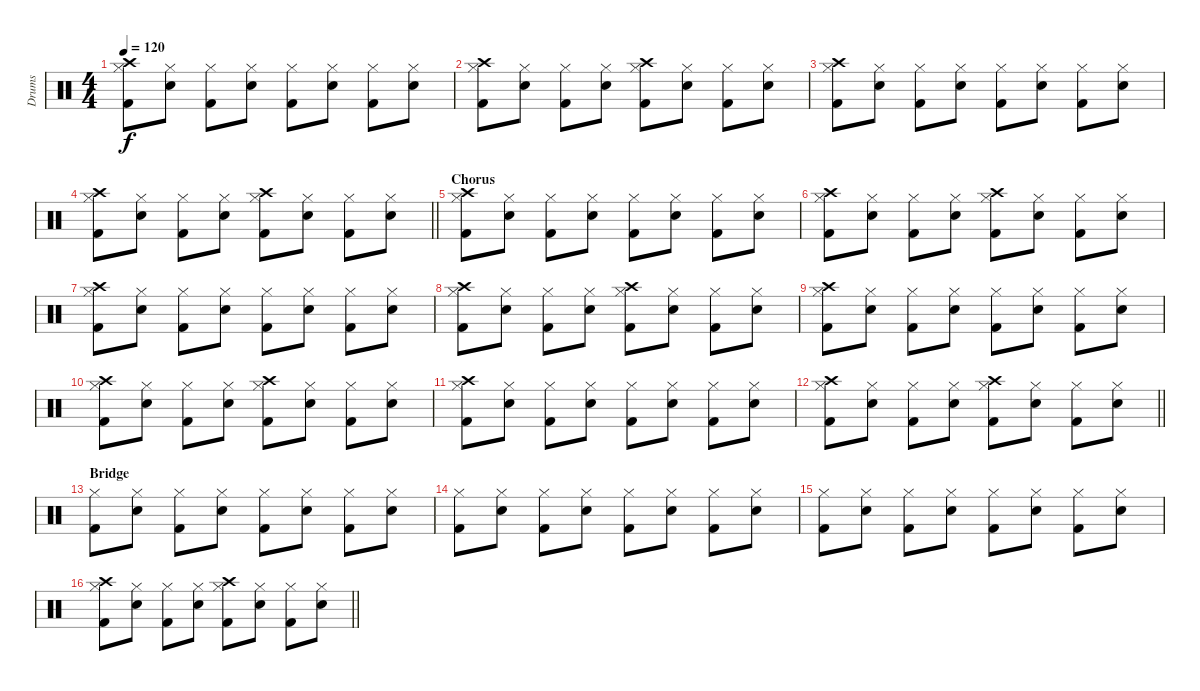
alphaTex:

\track ("Drums" "Drums") {instrument percussion}
\staff
\articulation defaults
\ts (4 4)
\tempo 120
\clef neutral
\ks c
("Hi-Hat (closed)" "Kick (hit) 2" "Crash high (hit)").8{dy f} ("Hi-Hat (closed)" "Electric Snare (hit)").8 ("Hi-Hat (closed)" "Kick (hit) 2").8 ("Hi-Hat (closed)" "Electric Snare (hit)").8 ("Hi-Hat (closed)" "Kick (hit) 2").8 ("Hi-Hat (closed)" "Electric Snare (hit)").8 ("Hi-Hat (closed)" "Kick (hit) 2").8 ("Hi-Hat (closed)" "Electric Snare (hit)").8 |
("Hi-Hat (closed)" "Kick (hit) 2" "Crash high (hit)").8 ("Hi-Hat (closed)" "Electric Snare (hit)").8 ("Hi-Hat (closed)" "Kick (hit) 2").8 ("Hi-Hat (closed)" "Electric Snare (hit)").8 ("Hi-Hat (closed)" "Kick (hit) 2" "Crash high (hit)").8 ("Hi-Hat (closed)" "Electric Snare (hit)").8 ("Hi-Hat (closed)" "Kick (hit) 2").8 ("Hi-Hat (closed)" "Electric Snare (hit)").8 |
("Hi-Hat (closed)" "Kick (hit) 2" "Crash high (hit)").8 ("Hi-Hat (closed)" "Electric Snare (hit)").8 ("Hi-Hat (closed)" "Kick (hit) 2").8 ("Hi-Hat (closed)" "Electric Snare (hit)").8 ("Hi-Hat (closed)" "Kick (hit) 2").8 ("Hi-Hat (closed)" "Electric Snare (hit)").8 ("Hi-Hat (closed)" "Kick (hit) 2").8 ("Hi-Hat (closed)" "Electric Snare (hit)").8 |
\barLineRight lightlight
("Hi-Hat (closed)" "Kick (hit) 2" "Crash high (hit)").8 ("Hi-Hat (closed)" "Electric Snare (hit)").8 ("Hi-Hat (closed)" "Kick (hit) 2").8 ("Hi-Hat (closed)" "Electric Snare (hit)").8 ("Hi-Hat (closed)" "Kick (hit) 2" "Crash high (hit)").8 ("Hi-Hat (closed)" "Electric Snare (hit)").8 ("Hi-Hat (closed)" "Kick (hit) 2").8 ("Hi-Hat (closed)" "Electric Snare (hit)").8 |
\section ("" "Chorus")
("Hi-Hat (closed)" "Kick (hit) 2" "Crash high (hit)").8 ("Hi-Hat (closed)" "Electric Snare (hit)").8 ("Hi-Hat (closed)" "Kick (hit) 2").8 ("Hi-Hat (closed)" "Electric Snare (hit)").8 ("Hi-Hat (closed)" "Kick (hit) 2").8 ("Hi-Hat (closed)" "Electric Snare (hit)").8 ("Hi-Hat (closed)" "Kick (hit) 2").8 ("Hi-Hat (closed)" "Electric Snare (hit)").8 |
("Hi-Hat (closed)" "Kick (hit) 2" "Crash high (hit)").8 ("Hi-Hat (closed)" "Electric Snare (hit)").8 ("Hi-Hat (closed)" "Kick (hit) 2").8 ("Hi-Hat (closed)" "Electric Snare (hit)").8 ("Hi-Hat (closed)" "Kick (hit) 2" "Crash high (hit)").8 ("Hi-Hat (closed)" "Electric Snare (hit)").8 ("Hi-Hat (closed)" "Kick (hit) 2").8 ("Hi-Hat (closed)" "Electric Snare (hit)").8 |
("Hi-Hat (closed)" "Kick (hit) 2" "Crash high (hit)").8 ("Hi-Hat (closed)" "Electric Snare (hit)").8 ("Hi-Hat (closed)" "Kick (hit) 2").8 ("Hi-Hat (closed)" "Electric Snare (hit)").8 ("Hi-Hat (closed)" "Kick (hit) 2").8 ("Hi-Hat (closed)" "Electric Snare (hit)").8 ("Hi-Hat (closed)" "Kick (hit) 2").8 ("Hi-Hat (closed)" "Electric Snare (hit)").8 |
("Hi-Hat (closed)" "Kick (hit) 2" "Crash high (hit)").8 ("Hi-Hat (closed)" "Electric Snare (hit)").8 ("Hi-Hat (closed)" "Kick (hit) 2").8 ("Hi-Hat (closed)" "Electric Snare (hit)").8 ("Hi-Hat (closed)" "Kick (hit) 2" "Crash high (hit)").8 ("Hi-Hat (closed)" "Electric Snare (hit)").8 ("Hi-Hat (closed)" "Kick (hit) 2").8 ("Hi-Hat (closed)" "Electric Snare (hit)").8 |
("Hi-Hat (closed)" "Kick (hit) 2" "Crash high (hit)").8 ("Hi-Hat (closed)" "Electric Snare (hit)").8 ("Hi-Hat (closed)" "Kick (hit) 2").8 ("Hi-Hat (closed)" "Electric Snare (hit)").8 ("Hi-Hat (closed)" "Kick (hit) 2").8 ("Hi-Hat (closed)" "Electric Snare (hit)").8 ("Hi-Hat (closed)" "Kick (hit) 2").8 ("Hi-Hat (closed)" "Electric Snare (hit)").8 |
("Hi-Hat (closed)" "Kick (hit) 2" "Crash high (hit)").8 ("Hi-Hat (closed)" "Electric Snare (hit)").8 ("Hi-Hat (closed)" "Kick (hit) 2").8 ("Hi-Hat (closed)" "Electric Snare (hit)").8 ("Hi-Hat (closed)" "Kick (hit) 2" "Crash high (hit)").8 ("Hi-Hat (closed)" "Electric Snare (hit)").8 ("Hi-Hat (closed)" "Kick (hit) 2").8 ("Hi-Hat (closed)" "Electric Snare (hit)").8 |
("Hi-Hat (closed)" "Kick (hit) 2" "Crash high (hit)").8 ("Hi-Hat (closed)" "Electric Snare (hit)").8 ("Hi-Hat (closed)" "Kick (hit) 2").8 ("Hi-Hat (closed)" "Electric Snare (hit)").8 ("Hi-Hat (closed)" "Kick (hit) 2").8 ("Hi-Hat (closed)" "Electric Snare (hit)").8 ("Hi-Hat (closed)" "Kick (hit) 2").8 ("Hi-Hat (closed)" "Electric Snare (hit)").8 |
\barLineRight lightlight
("Hi-Hat (closed)" "Kick (hit) 2" "Crash high (hit)").8 ("Hi-Hat (closed)" "Electric Snare (hit)").8 ("Hi-Hat (closed)" "Kick (hit) 2").8 ("Hi-Hat (closed)" "Electric Snare (hit)").8 ("Hi-Hat (closed)" "Kick (hit) 2" "Crash high (hit)").8 ("Hi-Hat (closed)" "Electric Snare (hit)").8 ("Hi-Hat (closed)" "Kick (hit) 2").8 ("Hi-Hat (closed)" "Electric Snare (hit)").8 |
\section ("" "Bridge")
("Hi-Hat (closed)" "Kick (hit) 2").8 ("Hi-Hat (closed)" "Electric Snare (hit)").8 ("Hi-Hat (closed)" "Kick (hit) 2").8 ("Hi-Hat (closed)" "Electric Snare (hit)").8 ("Hi-Hat (closed)" "Kick (hit) 2").8 ("Hi-Hat (closed)" "Electric Snare (hit)").8 ("Hi-Hat (closed)" "Kick (hit) 2").8 ("Hi-Hat (closed)" "Electric Snare (hit)").8 |
("Hi-Hat (closed)" "Kick (hit) 2").8 ("Hi-Hat (closed)" "Electric Snare (hit)").8 ("Hi-Hat (closed)" "Kick (hit) 2").8 ("Hi-Hat (closed)" "Electric Snare (hit)").8 ("Hi-Hat (closed)" "Kick (hit) 2").8 ("Hi-Hat (closed)" "Electric Snare (hit)").8 ("Hi-Hat (closed)" "Kick (hit) 2").8 ("Hi-Hat (closed)" "Electric Snare (hit)").8 |
("Hi-Hat (closed)" "Kick (hit) 2").8 ("Hi-Hat (closed)" "Electric Snare (hit)").8 ("Hi-Hat (closed)" "Kick (hit) 2").8 ("Hi-Hat (closed)" "Electric Snare (hit)").8 ("Hi-Hat (closed)" "Kick (hit) 2").8 ("Hi-Hat (closed)" "Electric Snare (hit)").8 ("Hi-Hat (closed)" "Kick (hit) 2").8 ("Hi-Hat (closed)" "Electric Snare (hit)").8 |
\barLineRight lightlight
("Hi-Hat (closed)" "Kick (hit) 2" "Crash high (hit)").8 ("Hi-Hat (closed)" "Electric Snare (hit)").8 ("Hi-Hat (closed)" "Kick (hit) 2").8 ("Hi-Hat (closed)" "Electric Snare (hit)").8 ("Hi-Hat (closed)" "Kick (hit) 2" "Crash high (hit)").8 ("Hi-Hat (closed)" "Electric Snare (hit)").8 ("Hi-Hat (closed)" "Kick (hit) 2").8 ("Hi-Hat (closed)" "Electric Snare (hit)").8
